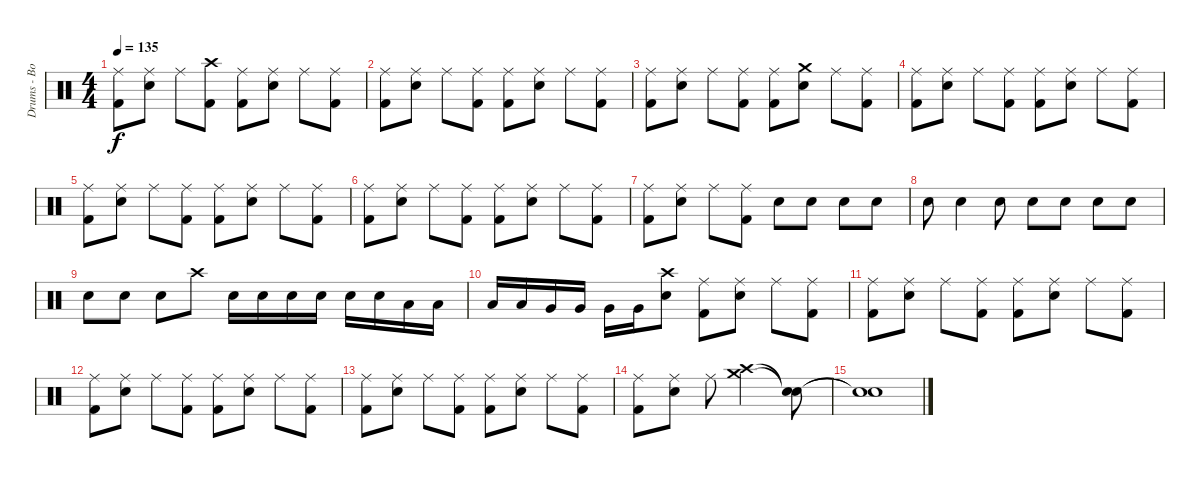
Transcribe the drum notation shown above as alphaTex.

\track ("Drums - Bobby Schayer" "Drums - Bo") {instrument percussion}
\staff {score}
\articulation defaults
\ts (4 4)
\tempo 135
\clef neutral
\ks c
("Ride (middle)" "Kick (hit) 2").8{dy f} ("Ride (middle)" "Electric Snare (hit)").8 "Ride (middle)".8 ("Crash high (hit)" "Kick (hit) 2").8 ("Ride (middle)" "Kick (hit) 2").8 ("Ride (middle)" "Electric Snare (hit)").8 "Ride (middle)".8 ("Ride (middle)" "Kick (hit) 2").8 |
("Ride (middle)" "Kick (hit) 2").8 ("Ride (middle)" "Electric Snare (hit)").8 "Ride (middle)".8 ("Ride (middle)" "Kick (hit) 2").8 ("Ride (middle)" "Kick (hit) 2").8 ("Ride (middle)" "Electric Snare (hit)").8 "Ride (middle)".8 ("Ride (middle)" "Kick (hit) 2").8 |
("Ride (middle)" "Kick (hit) 2").8 ("Ride (middle)" "Electric Snare (hit)").8 "Ride (middle)".8 ("Ride (middle)" "Kick (hit) 2").8 ("Ride (middle)" "Kick (hit) 2").8 ("Crash medium (hit)" "Electric Snare (hit)").8 "Ride (middle)".8 ("Ride (middle)" "Kick (hit) 2").8 |
("Ride (middle)" "Kick (hit) 2").8 ("Ride (middle)" "Electric Snare (hit)").8 "Ride (middle)".8 ("Ride (middle)" "Kick (hit) 2").8 ("Ride (middle)" "Kick (hit) 2").8 ("Ride (middle)" "Electric Snare (hit)").8 "Ride (middle)".8 ("Ride (middle)" "Kick (hit) 2").8 |
("Ride (middle)" "Kick (hit) 2").8 ("Ride (middle)" "Electric Snare (hit)").8 "Ride (middle)".8 ("Ride (middle)" "Kick (hit) 2").8 ("Ride (middle)" "Kick (hit) 2").8 ("Ride (middle)" "Electric Snare (hit)").8 "Ride (middle)".8 ("Ride (middle)" "Kick (hit) 2").8 |
("Ride (middle)" "Kick (hit) 2").8 ("Ride (middle)" "Electric Snare (hit)").8 "Ride (middle)".8 ("Ride (middle)" "Kick (hit) 2").8 ("Ride (middle)" "Kick (hit) 2").8 ("Ride (middle)" "Electric Snare (hit)").8 "Ride (middle)".8 ("Ride (middle)" "Kick (hit) 2").8 |
("Ride (middle)" "Kick (hit) 2").8 ("Ride (middle)" "Electric Snare (hit)").8 "Ride (middle)".8 ("Ride (middle)" "Kick (hit) 2").8 "Electric Snare (hit)".8 "Electric Snare (hit)".8 "Electric Snare (hit)".8 "Electric Snare (hit)".8 |
"Electric Snare (hit)".8 "Electric Snare (hit)".4 "Electric Snare (hit)".8 "Electric Snare (hit)".8 "Electric Snare (hit)".8 "Electric Snare (hit)".8 "Electric Snare (hit)".8 |
"Electric Snare (hit)".8 "Electric Snare (hit)".8 "Electric Snare (hit)".8 "Crash high (hit)".8 "Electric Snare (hit)".16 "Electric Snare (hit)".16 "Electric Snare (hit)".16 "Electric Snare (hit)".16 "Electric Snare (hit)".16 "Electric Snare (hit)".16 "Low Tom (hit)".16 "Low Tom (hit)".16 |
"Low Tom (hit)".16 "Low Tom (hit)".16 "Very Low Tom (hit)".16 "Very Low Tom (hit)".16 "Very Low Tom (hit)".16 "Very Low Tom (hit)".16 ("Crash high (hit)" "Electric Snare (hit)").8 ("Ride (middle)" "Kick (hit) 2").8 ("Ride (middle)" "Electric Snare (hit)").8 "Ride (middle)".8 ("Ride (middle)" "Kick (hit) 2").8 |
("Ride (middle)" "Kick (hit) 2").8 ("Ride (middle)" "Electric Snare (hit)").8 "Ride (middle)".8 ("Ride (middle)" "Kick (hit) 2").8 ("Ride (middle)" "Kick (hit) 2").8 ("Ride (middle)" "Electric Snare (hit)").8 "Ride (middle)".8 ("Ride (middle)" "Kick (hit) 2").8 |
("Ride (middle)" "Kick (hit) 2").8 ("Ride (middle)" "Electric Snare (hit)").8 "Ride (middle)".8 ("Ride (middle)" "Kick (hit) 2").8 ("Ride (middle)" "Kick (hit) 2").8 ("Ride (middle)" "Electric Snare (hit)").8 "Ride (middle)".8 ("Ride (middle)" "Kick (hit) 2").8 |
("Ride (middle)" "Kick (hit) 2").8 ("Ride (middle)" "Electric Snare (hit)").8 "Ride (middle)".8 ("Ride (middle)" "Kick (hit) 2").8 ("Ride (middle)" "Kick (hit) 2").8 ("Ride (middle)" "Electric Snare (hit)").8 "Ride (middle)".8 ("Ride (middle)" "Kick (hit) 2").8 |
("Ride (middle)" "Kick (hit) 2").8 ("Ride (middle)" "Electric Snare (hit)").8 "Ride (middle)".8 ("Crash high (hit)" "Crash medium (hit)").2 ("Snare (hit)"{t} "Snare (hit)"{t}).8 |
("Snare (hit)"{t} "Snare (hit)"{t}).1
